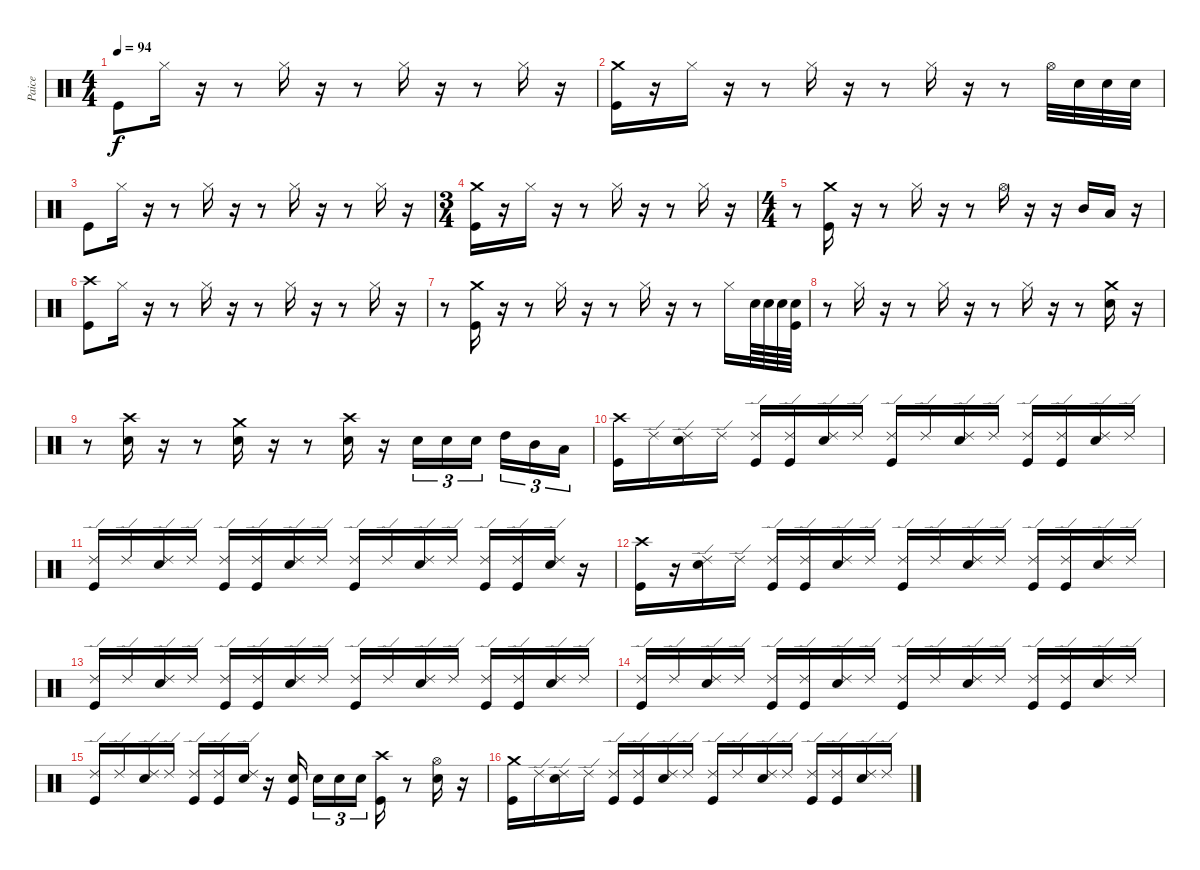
\track ("Paice" "Paice") {instrument percussion}
\staff {score}
\articulation defaults
\ts (4 4)
\tempo 94
\clef neutral
\ks c "Kick (hit)".8{dy f} "Hi-Hat (closed)".16
r.16 r.8 "Hi-Hat (closed)".16 r.16 r.8 "Hi-Hat (closed)".16 r.16 r.8 "Hi-Hat (closed)".16 r.16 |
("Crash medium (hit)" "Kick (hit)").16 r.16 "Hi-Hat (closed)".16 r.16 r.8 "Hi-Hat (closed)".16 r.16 r.8 "Hi-Hat (closed)".16 r.16 r.8 "Hi-Hat (open)".32 "Snare (hit) 2".32 "Snare (hit) 2".32 "Snare (hit) 2".32 |
"Kick (hit)".8 "Hi-Hat (closed)".16 r.16 r.8 "Hi-Hat (closed)".16 r.16 r.8 "Hi-Hat (closed)".16 r.16 r.8 "Hi-Hat (closed)".16 r.16 |
\ts (3 4)
("Crash medium (hit)" "Kick (hit)").16 r.16 "Hi-Hat (closed)".16 r.16 r.8 "Hi-Hat (closed)".16 r.16 r.8 "Hi-Hat (closed)".16 r.16 |
\ts (4 4)
r.8 ("Crash medium (hit)" "Kick (hit)").16 r.16 r.8 "Hi-Hat (closed)".16 r.16 r.8 "Hi-Hat (open)".16 r.16 r.16 "Mid Tom (hit)".16 "Low Tom (hit)".16 r.16 |
("Crash high (hit)" "Kick (hit)").8 "Hi-Hat (closed)".16 r.16 r.8 "Hi-Hat (closed)".16 r.16 r.8 "Hi-Hat (closed)".16 r.16 r.8 "Hi-Hat (closed)".16 r.16 |
r.8 ("Crash medium (hit)" "Kick (hit)").16 r.16 r.8 "Hi-Hat (closed)".16 r.16 r.8 "Hi-Hat (closed)".16 r.16 r.8 "Hi-Hat (closed)".16 "Snare (hit) 2".64 "Snare (hit) 2".64 "Snare (hit) 2".64 ("Snare (hit) 2" "Kick (hit)").64 |
r.8 "Hi-Hat (closed)".16 r.16 r.8 "Hi-Hat (closed)".16 r.16 r.8 "Hi-Hat (closed)".16 r.16 r.8 ("Crash medium (hit)" "Snare (hit) 2").16 r.16 |
r.8 ("Crash high (hit)" "Snare (hit) 2").16 r.16 r.8 ("Crash medium (hit)" "Snare (hit) 2").16 r.16 r.8 ("Crash high (hit)" "Snare (hit) 2").16 r.16 "Snare (hit) 2".16{tu (3 2)} "Snare (hit) 2".16{tu (3 2)} "Snare (hit) 2".16{tu (3 2)} "High Tom (hit)".16{tu (3 2)} "Mid Tom (hit)".16{tu (3 2)} "Low Tom (hit)".16{tu (3 2)} |
("Crash high (hit)" "Kick (hit)").16 "Ride (edge) 2".16 ("Ride (edge) 2" "Snare (hit) 2").16 "Ride (edge) 2".16 ("Ride (edge) 2" "Kick (hit)").16 ("Ride (edge) 2" "Kick (hit)").16 ("Ride (edge) 2" "Snare (hit) 2").16 "Ride (edge) 2".16 ("Ride (edge) 2" "Kick (hit)").16 "Ride (edge) 2".16 ("Ride (edge) 2" "Snare (hit) 2").16 "Ride (edge) 2".16 ("Ride (edge) 2" "Kick (hit)").16 ("Ride (edge) 2" "Kick (hit)").16 ("Ride (edge) 2" "Snare (hit) 2").16 "Ride (edge) 2".16 |
("Ride (edge) 2" "Kick (hit)").16 "Ride (edge) 2".16 ("Ride (edge) 2" "Snare (hit) 2").16 "Ride (edge) 2".16 ("Ride (edge) 2" "Kick (hit)").16 ("Ride (edge) 2" "Kick (hit)").16 ("Ride (edge) 2" "Snare (hit) 2").16 "Ride (edge) 2".16 ("Ride (edge) 2" "Kick (hit)").16 "Ride (edge) 2".16 ("Ride (edge) 2" "Snare (hit) 2").16 "Ride (edge) 2".16 ("Ride (edge) 2" "Kick (hit)").16 ("Ride (edge) 2" "Kick (hit)").16 ("Ride (edge) 2" "Snare (hit) 2").16 r.16 |
("Crash high (hit)" "Kick (hit)").16 r.16 ("Ride (edge) 2" "Snare (hit) 2").16 "Ride (edge) 2".16 ("Ride (edge) 2" "Kick (hit)").16 ("Ride (edge) 2" "Kick (hit)").16 ("Ride (edge) 2" "Snare (hit) 2").16 "Ride (edge) 2".16 ("Ride (edge) 2" "Kick (hit)").16 "Ride (edge) 2".16 ("Ride (edge) 2" "Snare (hit) 2").16 "Ride (edge) 2".16 ("Ride (edge) 2" "Kick (hit)").16 ("Ride (edge) 2" "Kick (hit)").16 ("Ride (edge) 2" "Snare (hit) 2").16 "Ride (edge) 2".16 |
("Ride (edge) 2" "Kick (hit)").16 "Ride (edge) 2".16 ("Ride (edge) 2" "Snare (hit) 2").16 "Ride (edge) 2".16 ("Ride (edge) 2" "Kick (hit)").16 ("Ride (edge) 2" "Kick (hit)").16 ("Ride (edge) 2" "Snare (hit) 2").16 "Ride (edge) 2".16 ("Ride (edge) 2" "Kick (hit)").16 "Ride (edge) 2".16 ("Ride (edge) 2" "Snare (hit) 2").16 "Ride (edge) 2".16 ("Ride (edge) 2" "Kick (hit)").16 ("Ride (edge) 2" "Kick (hit)").16 ("Ride (edge) 2" "Snare (hit) 2").16 "Ride (edge) 2".16 |
("Ride (edge) 2" "Kick (hit)").16 "Ride (edge) 2".16 ("Ride (edge) 2" "Snare (hit) 2").16 "Ride (edge) 2".16 ("Ride (edge) 2" "Kick (hit)").16 ("Ride (edge) 2" "Kick (hit)").16 ("Ride (edge) 2" "Snare (hit) 2").16 "Ride (edge) 2".16 ("Ride (edge) 2" "Kick (hit)").16 "Ride (edge) 2".16 ("Ride (edge) 2" "Snare (hit) 2").16 "Ride (edge) 2".16 ("Ride (edge) 2" "Kick (hit)").16 ("Ride (edge) 2" "Kick (hit)").16 ("Ride (edge) 2" "Snare (hit) 2").16 "Ride (edge) 2".16 |
("Ride (edge) 2" "Kick (hit)").16 "Ride (edge) 2".16 ("Ride (edge) 2" "Snare (hit) 2").16 "Ride (edge) 2".16 ("Ride (edge) 2" "Kick (hit)").16 ("Ride (edge) 2" "Kick (hit)").16 ("Ride (edge) 2" "Snare (hit) 2").16 r.16 ("Snare (hit) 2" "Kick (hit)").16 "Snare (hit) 2".16{tu (3 2)} "Snare (hit) 2".16{tu (3 2)} "Snare (hit) 2".16{tu (3 2)} ("Kick (hit)" "Crash high (hit)").16 r.8 ("Hi-Hat (open)" "Snare (hit) 2").16 r.16 |
("Crash medium (hit)" "Kick (hit)").16 "Ride (edge) 2".16 ("Ride (edge) 2" "Snare (hit) 2").16 "Ride (edge) 2".16 ("Ride (edge) 2" "Kick (hit)").16 ("Ride (edge) 2" "Kick (hit)").16 ("Ride (edge) 2" "Snare (hit) 2").16 "Ride (edge) 2".16 ("Ride (edge) 2" "Kick (hit)").16 "Ride (edge) 2".16 ("Ride (edge) 2" "Snare (hit) 2").16 "Ride (edge) 2".16 ("Ride (edge) 2" "Kick (hit)").16 ("Ride (edge) 2" "Kick (hit)").16 ("Ride (edge) 2" "Snare (hit) 2").16 "Ride (edge) 2".16
